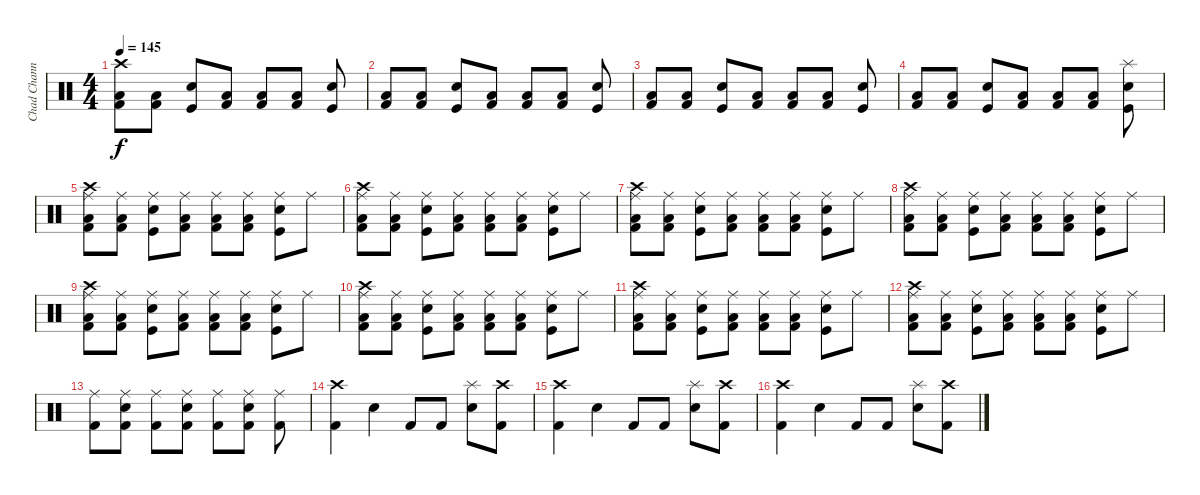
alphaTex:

\track ("Chad Channing" "Chad Chann") {instrument percussion}
\staff {score}
\articulation defaults
\ts (4 4)
\tempo 145
\clef neutral
\ks c
("Crash high (hit)" "Low Floor Tom (hit)" "Kick (hit) 2").8{dy f} ("Low Floor Tom (hit)" "Kick (hit) 2").8 ("Snare (hit) 2" "Kick (hit)").8 ("Low Floor Tom (hit)" "Kick (hit) 2").8 ("Low Floor Tom (hit)" "Kick (hit) 2").8 ("Low Floor Tom (hit)" "Kick (hit) 2").8 ("Snare (hit) 2" "Kick (hit)").8 |
("Low Floor Tom (hit)" "Kick (hit) 2").8 ("Low Floor Tom (hit)" "Kick (hit) 2").8 ("Snare (hit) 2" "Kick (hit)").8 ("Low Floor Tom (hit)" "Kick (hit) 2").8 ("Low Floor Tom (hit)" "Kick (hit) 2").8 ("Low Floor Tom (hit)" "Kick (hit) 2").8 ("Snare (hit) 2" "Kick (hit)").8 |
("Low Floor Tom (hit)" "Kick (hit) 2").8 ("Low Floor Tom (hit)" "Kick (hit) 2").8 ("Snare (hit) 2" "Kick (hit)").8 ("Low Floor Tom (hit)" "Kick (hit) 2").8 ("Low Floor Tom (hit)" "Kick (hit) 2").8 ("Low Floor Tom (hit)" "Kick (hit) 2").8 ("Snare (hit) 2" "Kick (hit)").8 |
("Low Floor Tom (hit)" "Kick (hit) 2").8 ("Low Floor Tom (hit)" "Kick (hit) 2").8 ("Snare (hit) 2" "Kick (hit)").8 ("Low Floor Tom (hit)" "Kick (hit) 2").8 ("Low Floor Tom (hit)" "Kick (hit) 2").8 ("Low Floor Tom (hit)" "Kick (hit) 2").8 ("Snare (hit) 2" "Splash (hit)" "Kick (hit)").8 |
("Crash high (hit)" "Ride (middle)" "Low Floor Tom (hit)" "Kick (hit) 2").8 ("Ride (middle)" "Low Floor Tom (hit)" "Kick (hit) 2").8 ("Snare (hit) 2" "Ride (middle)" "Kick (hit)").8 ("Ride (middle)" "Low Floor Tom (hit)" "Kick (hit) 2").8 ("Ride (middle)" "Low Floor Tom (hit)" "Kick (hit) 2").8 ("Ride (middle)" "Low Floor Tom (hit)" "Kick (hit) 2").8 ("Snare (hit) 2" "Ride (middle)" "Kick (hit)").8 "Ride (middle)".8 |
("Crash high (hit)" "Ride (middle)" "Low Floor Tom (hit)" "Kick (hit) 2").8 ("Ride (middle)" "Low Floor Tom (hit)" "Kick (hit) 2").8 ("Snare (hit) 2" "Ride (middle)" "Kick (hit)").8 ("Ride (middle)" "Low Floor Tom (hit)" "Kick (hit) 2").8 ("Ride (middle)" "Low Floor Tom (hit)" "Kick (hit) 2").8 ("Ride (middle)" "Low Floor Tom (hit)" "Kick (hit) 2").8 ("Snare (hit) 2" "Ride (middle)" "Kick (hit)").8 "Ride (middle)".8 |
("Crash high (hit)" "Ride (middle)" "Low Floor Tom (hit)" "Kick (hit) 2").8 ("Ride (middle)" "Low Floor Tom (hit)" "Kick (hit) 2").8 ("Snare (hit) 2" "Ride (middle)" "Kick (hit)").8 ("Ride (middle)" "Low Floor Tom (hit)" "Kick (hit) 2").8 ("Ride (middle)" "Low Floor Tom (hit)" "Kick (hit) 2").8 ("Ride (middle)" "Low Floor Tom (hit)" "Kick (hit) 2").8 ("Snare (hit) 2" "Ride (middle)" "Kick (hit)").8 "Ride (middle)".8 |
("Crash high (hit)" "Ride (middle)" "Low Floor Tom (hit)" "Kick (hit) 2").8 ("Ride (middle)" "Low Floor Tom (hit)" "Kick (hit) 2").8 ("Snare (hit) 2" "Ride (middle)" "Kick (hit)").8 ("Ride (middle)" "Low Floor Tom (hit)" "Kick (hit) 2").8 ("Ride (middle)" "Low Floor Tom (hit)" "Kick (hit) 2").8 ("Ride (middle)" "Low Floor Tom (hit)" "Kick (hit) 2").8 ("Snare (hit) 2" "Ride (middle)" "Kick (hit)").8 "Ride (middle)".8 |
("Crash high (hit)" "Ride (middle)" "Low Floor Tom (hit)" "Kick (hit) 2").8 ("Ride (middle)" "Low Floor Tom (hit)" "Kick (hit) 2").8 ("Snare (hit) 2" "Ride (middle)" "Kick (hit)").8 ("Ride (middle)" "Low Floor Tom (hit)" "Kick (hit) 2").8 ("Ride (middle)" "Low Floor Tom (hit)" "Kick (hit) 2").8 ("Ride (middle)" "Low Floor Tom (hit)" "Kick (hit) 2").8 ("Snare (hit) 2" "Ride (middle)" "Kick (hit)").8 "Ride (middle)".8 |
("Crash high (hit)" "Ride (middle)" "Low Floor Tom (hit)" "Kick (hit) 2").8 ("Ride (middle)" "Low Floor Tom (hit)" "Kick (hit) 2").8 ("Snare (hit) 2" "Ride (middle)" "Kick (hit)").8 ("Ride (middle)" "Low Floor Tom (hit)" "Kick (hit) 2").8 ("Ride (middle)" "Low Floor Tom (hit)" "Kick (hit) 2").8 ("Ride (middle)" "Low Floor Tom (hit)" "Kick (hit) 2").8 ("Snare (hit) 2" "Ride (middle)" "Kick (hit)").8 "Ride (middle)".8 |
("Crash high (hit)" "Ride (middle)" "Low Floor Tom (hit)" "Kick (hit) 2").8 ("Ride (middle)" "Low Floor Tom (hit)" "Kick (hit) 2").8 ("Snare (hit) 2" "Ride (middle)" "Kick (hit)").8 ("Ride (middle)" "Low Floor Tom (hit)" "Kick (hit) 2").8 ("Ride (middle)" "Low Floor Tom (hit)" "Kick (hit) 2").8 ("Ride (middle)" "Low Floor Tom (hit)" "Kick (hit) 2").8 ("Snare (hit) 2" "Ride (middle)" "Kick (hit)").8 "Ride (middle)".8 |
("Crash high (hit)" "Ride (middle)" "Low Floor Tom (hit)" "Kick (hit) 2").8 ("Ride (middle)" "Low Floor Tom (hit)" "Kick (hit) 2").8 ("Snare (hit) 2" "Ride (middle)" "Kick (hit)").8 ("Ride (middle)" "Low Floor Tom (hit)" "Kick (hit) 2").8 ("Ride (middle)" "Low Floor Tom (hit)" "Kick (hit) 2").8 ("Ride (middle)" "Low Floor Tom (hit)" "Kick (hit) 2").8 ("Snare (hit) 2" "Ride (middle)" "Kick (hit)").8 "Ride (middle)".8 |
("Ride (middle)" "Kick (hit) 2").8 ("Snare (hit) 2" "Ride (middle)" "Kick (hit) 2").8 ("Ride (middle)" "Kick (hit) 2").8 ("Snare (hit) 2" "Ride (middle)" "Kick (hit) 2").8 ("Ride (middle)" "Kick (hit) 2").8 ("Snare (hit) 2" "Ride (middle)" "Kick (hit) 2").8 ("Ride (middle)" "Kick (hit) 2").8 |
("Crash high (hit)" "Kick (hit) 2").4 "Snare (hit) 2".4 "Kick (hit) 2".8 "Kick (hit) 2".8 ("Splash (hit)" "Snare (hit) 2").8 ("Crash high (hit)" "Kick (hit) 2").8 |
("Crash high (hit)" "Kick (hit) 2").4 "Snare (hit) 2".4 "Kick (hit) 2".8 "Kick (hit) 2".8 ("Splash (hit)" "Snare (hit) 2").8 ("Crash high (hit)" "Kick (hit) 2").8 |
("Crash high (hit)" "Kick (hit) 2").4 "Snare (hit) 2".4 "Kick (hit) 2".8 "Kick (hit) 2".8 ("Splash (hit)" "Snare (hit) 2").8 ("Crash high (hit)" "Kick (hit) 2").8
